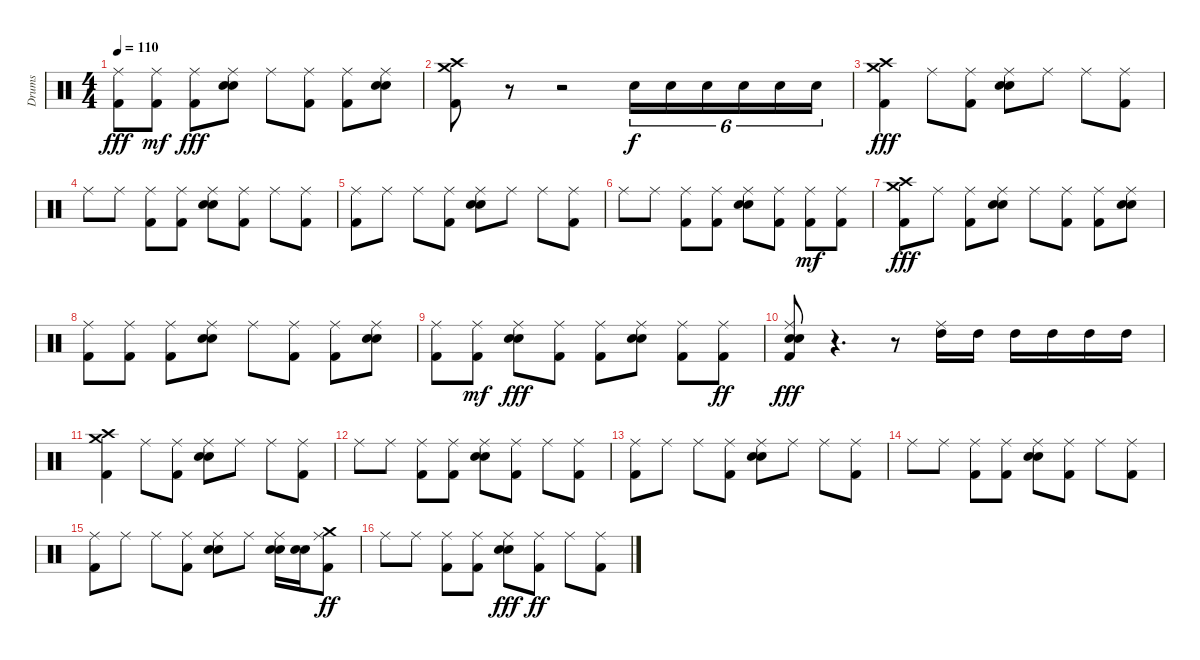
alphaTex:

\track ("Drums" "Drums") {instrument percussion}
\staff {score}
\articulation defaults
\ts (4 4)
\tempo 110
\clef neutral
\ks c
("Kick (hit) 2" "Ride (middle)").8{dy fff} ("Ride (middle)" "Kick (hit) 2").8{dy mf} ("Ride (middle)" "Kick (hit) 2").8{dy fff} ("Ride (middle)" "Electric Snare (hit)" "Snare (hit) 2").8 "Ride (middle)".8 ("Ride (middle)" "Kick (hit) 2").8 ("Ride (middle)" "Kick (hit) 2").8 ("Ride (middle)" "Electric Snare (hit)" "Snare (hit) 2").8 |
("Crash high (hit)" "Crash medium (hit)" "Kick (hit) 2").8 r.8 r.2 "Electric Snare (hit)".16{tu (6 4) dy f} "Electric Snare (hit)".16{tu (6 4)} "Electric Snare (hit)".16{tu (6 4)} "Electric Snare (hit)".16{tu (6 4)} "Electric Snare (hit)".16{tu (6 4)} "Electric Snare (hit)".16{tu (6 4)} |
("Crash medium (hit)" "Crash high (hit)" "Kick (hit) 2").4{dy fff} "Ride (middle)".8 ("Kick (hit) 2" "Ride (middle)").8 ("Ride (middle)" "Snare (hit) 2" "Electric Snare (hit)").8 "Ride (middle)".8 "Ride (middle)".8 ("Ride (middle)" "Kick (hit) 2").8 |
"Ride (middle)".8 "Ride (middle)".8 ("Ride (middle)" "Kick (hit) 2").8 ("Ride (middle)" "Kick (hit) 2").8 ("Ride (middle)" "Snare (hit) 2" "Electric Snare (hit)").8 ("Ride (middle)" "Kick (hit) 2").8 "Ride (middle)".8 ("Ride (middle)" "Kick (hit) 2").8 |
("Kick (hit) 2" "Ride (middle)").8 "Ride (middle)".8 "Ride (middle)".8 ("Kick (hit) 2" "Ride (middle)").8 ("Ride (middle)" "Snare (hit) 2" "Electric Snare (hit)").8 "Ride (middle)".8 "Ride (middle)".8 ("Ride (middle)" "Kick (hit) 2").8 |
"Ride (middle)".8 "Ride (middle)".8 ("Ride (middle)" "Kick (hit) 2").8 ("Ride (middle)" "Kick (hit) 2").8 ("Ride (middle)" "Snare (hit) 2" "Electric Snare (hit)").8 ("Ride (middle)" "Kick (hit) 2").8 ("Ride (middle)" "Kick (hit) 2").8{dy mf} ("Ride (middle)" "Kick (hit) 2").8 |
("Crash medium (hit)" "Crash high (hit)" "Kick (hit) 2").8{dy fff} "Ride (middle)".8 ("Kick (hit) 2" "Ride (middle)").8 ("Ride (middle)" "Snare (hit) 2" "Electric Snare (hit)").8 "Ride (middle)".8 ("Ride (middle)" "Kick (hit) 2").8 ("Ride (middle)" "Kick (hit) 2").8 ("Ride (middle)" "Electric Snare (hit)" "Snare (hit) 2").8 |
("Kick (hit) 2" "Ride (middle)").8 ("Kick (hit) 2" "Ride (middle)").8 ("Ride (middle)" "Kick (hit) 2").8 ("Ride (middle)" "Electric Snare (hit)" "Snare (hit) 2").8 "Ride (middle)".8 ("Ride (middle)" "Kick (hit) 2").8 ("Ride (middle)" "Kick (hit) 2").8 ("Ride (middle)" "Electric Snare (hit)" "Snare (hit) 2").8 |
("Kick (hit) 2" "Ride (middle)").8 ("Ride (middle)" "Kick (hit) 2").8{dy mf} ("Ride (middle)" "Snare (hit) 2" "Electric Snare (hit)").8{dy fff} ("Ride (middle)" "Kick (hit) 2").8 ("Ride (middle)" "Kick (hit) 2").8 ("Ride (middle)" "Snare (hit) 2" "Electric Snare (hit)").8 ("Ride (middle)" "Kick (hit) 2").8 ("Ride (middle)" "Kick (hit) 2").8{dy ff} |
("Kick (hit) 2" "Ride (middle)" "Electric Snare (hit)" "Snare (hit) 2").8{dy fff} r.4{d} r.8 ("Ride (middle)" "High Tom (hit)").16 "High Tom (hit)".16 "High Tom (hit)".16 "High Tom (hit)".16 "High Tom (hit)".16 "High Tom (hit)".16 |
("Crash medium (hit)" "Crash high (hit)" "Kick (hit) 2").4 "Ride (middle)".8 ("Kick (hit) 2" "Ride (middle)").8 ("Ride (middle)" "Snare (hit) 2" "Electric Snare (hit)").8 "Ride (middle)".8 "Ride (middle)".8 ("Ride (middle)" "Kick (hit) 2").8 |
"Ride (middle)".8 "Ride (middle)".8 ("Ride (middle)" "Kick (hit) 2").8 ("Ride (middle)" "Kick (hit) 2").8 ("Ride (middle)" "Snare (hit) 2" "Electric Snare (hit)").8 ("Ride (middle)" "Kick (hit) 2").8 "Ride (middle)".8 ("Ride (middle)" "Kick (hit) 2").8 |
("Kick (hit) 2" "Ride (middle)").8 "Ride (middle)".8 "Ride (middle)".8 ("Kick (hit) 2" "Ride (middle)").8 ("Ride (middle)" "Snare (hit) 2" "Electric Snare (hit)").8 "Ride (middle)".8 "Ride (middle)".8 ("Ride (middle)" "Kick (hit) 2").8 |
"Ride (middle)".8 "Ride (middle)".8 ("Ride (middle)" "Kick (hit) 2").8 ("Ride (middle)" "Kick (hit) 2").8 ("Ride (middle)" "Snare (hit) 2" "Electric Snare (hit)").8 ("Ride (middle)" "Kick (hit) 2").8 "Ride (middle)".8 ("Ride (middle)" "Kick (hit) 2").8 |
("Ride (middle)" "Kick (hit) 2").8 "Ride (middle)".8 "Ride (middle)".8 ("Kick (hit) 2" "Ride (middle)").8 ("Ride (middle)" "Snare (hit) 2" "Electric Snare (hit)").8 "Ride (middle)".8 ("Ride (middle)" "Snare (hit) 2" "Electric Snare (hit)").16 ("Snare (hit) 2" "Electric Snare (hit)").16 ("Ride (middle)" "Kick (hit) 2" "Crash medium (hit)").8{dy ff} |
"Ride (middle)".8 "Ride (middle)".8 ("Ride (middle)" "Kick (hit) 2").8 ("Kick (hit) 2" "Ride (middle)").8 ("Ride (middle)" "Snare (hit) 2" "Electric Snare (hit)").8{dy fff} ("Ride (middle)" "Kick (hit) 2").8{dy ff} "Ride (middle)".8 ("Kick (hit) 2" "Ride (middle)").8
